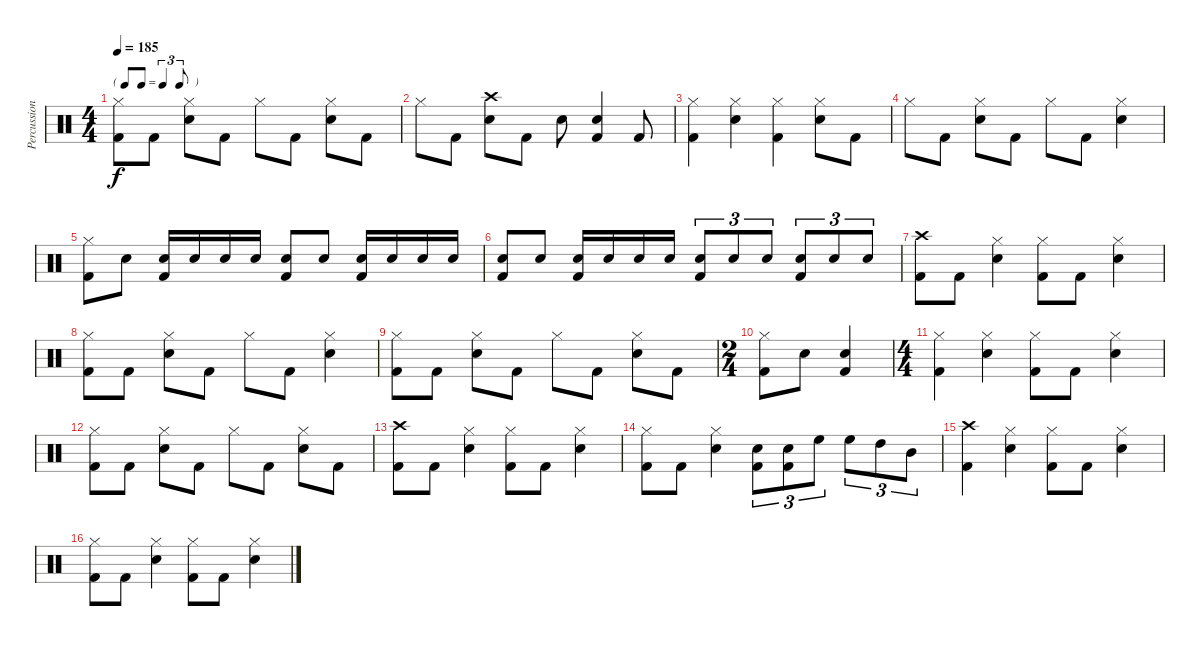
\track ("Percussion" "Percussion") {instrument percussion}
\staff {score}
\articulation defaults
\ts (4 4)
\tf triplet8th
\tempo 185
\clef neutral
\ks c
("Kick (hit) 2" "Hi-Hat (closed)").8{dy f} "Kick (hit) 2".8 ("Snare (hit) 2" "Hi-Hat (closed)").8 "Kick (hit) 2".8 "Hi-Hat (closed)".8 "Kick (hit) 2".8 ("Snare (hit) 2" "Hi-Hat (closed)").8 "Kick (hit) 2".8 |
"Hi-Hat (closed)".8 "Kick (hit) 2".8 ("Snare (hit) 2" "Crash high (hit)").8 "Kick (hit) 2".8 "Snare (hit) 2".8 ("Kick (hit) 2" "Snare (hit) 2").4 "Kick (hit) 2".8 |
("Kick (hit) 2" "Hi-Hat (closed)").4 ("Snare (hit) 2" "Hi-Hat (closed)").4 ("Kick (hit) 2" "Hi-Hat (closed)").4 ("Snare (hit) 2" "Hi-Hat (closed)").8 "Kick (hit) 2".8 |
"Hi-Hat (closed)".8 "Kick (hit) 2".8 ("Snare (hit) 2" "Hi-Hat (closed)").8 "Kick (hit) 2".8 "Hi-Hat (closed)".8 "Kick (hit) 2".8 ("Snare (hit) 2" "Hi-Hat (closed)").4 |
("Kick (hit) 2" "Hi-Hat (closed)").8 "Snare (hit) 2".8 ("Kick (hit) 2" "Snare (hit) 2").16 "Snare (hit) 2".16 "Snare (hit) 2".16 "Snare (hit) 2".16 ("Kick (hit) 2" "Snare (hit) 2").8 "Snare (hit) 2".8 ("Kick (hit) 2" "Snare (hit) 2").16 "Snare (hit) 2".16 "Snare (hit) 2".16 "Snare (hit) 2".16 |
("Kick (hit) 2" "Snare (hit) 2").8 "Snare (hit) 2".8 ("Kick (hit) 2" "Snare (hit) 2").16 "Snare (hit) 2".16 "Snare (hit) 2".16 "Snare (hit) 2".16 ("Kick (hit) 2" "Snare (hit) 2").8{tu (3 2)} "Snare (hit) 2".8{tu (3 2)} "Snare (hit) 2".8{tu (3 2)} ("Kick (hit) 2" "Snare (hit) 2").8{tu (3 2)} "Snare (hit) 2".8{tu (3 2)} "Snare (hit) 2".8{tu (3 2)} |
("Kick (hit) 2" "Crash high (hit)").8 "Kick (hit) 2".8 ("Snare (hit) 2" "Hi-Hat (closed)").4 ("Kick (hit) 2" "Hi-Hat (closed)").8 "Kick (hit) 2".8 ("Snare (hit) 2" "Hi-Hat (closed)").4 |
("Kick (hit) 2" "Hi-Hat (closed)").8 "Kick (hit) 2".8 ("Snare (hit) 2" "Hi-Hat (closed)").8 "Kick (hit) 2".8 "Hi-Hat (closed)".8 "Kick (hit) 2".8 ("Snare (hit) 2" "Hi-Hat (closed)").4 |
("Kick (hit) 2" "Hi-Hat (closed)").8 "Kick (hit) 2".8 ("Snare (hit) 2" "Hi-Hat (closed)").8 "Kick (hit) 2".8 "Hi-Hat (closed)".8 "Kick (hit) 2".8 ("Snare (hit) 2" "Hi-Hat (closed)").8 "Kick (hit) 2".8 |
\ts (2 4)
("Kick (hit) 2" "Hi-Hat (closed)").8 "Snare (hit) 2".8 ("Kick (hit) 2" "Snare (hit) 2").4 |
\ts (4 4)
("Kick (hit) 2" "Hi-Hat (closed)").4 ("Snare (hit) 2" "Hi-Hat (closed)").4 ("Kick (hit) 2" "Hi-Hat (closed)").8 "Kick (hit) 2".8 ("Snare (hit) 2" "Hi-Hat (closed)").4 |
("Kick (hit) 2" "Hi-Hat (closed)").8 "Kick (hit) 2".8 ("Snare (hit) 2" "Hi-Hat (closed)").8 "Kick (hit) 2".8 "Hi-Hat (closed)".8 "Kick (hit) 2".8 ("Snare (hit) 2" "Hi-Hat (closed)").8 "Kick (hit) 2".8 |
("Kick (hit) 2" "Crash high (hit)").8 "Kick (hit) 2".8 ("Snare (hit) 2" "Hi-Hat (closed)").4 ("Kick (hit) 2" "Hi-Hat (closed)").8 "Kick (hit) 2".8 ("Snare (hit) 2" "Hi-Hat (closed)").4 |
("Kick (hit) 2" "Hi-Hat (closed)").8 "Kick (hit) 2".8 ("Snare (hit) 2" "Hi-Hat (closed)").4 ("Kick (hit) 2" "Snare (hit) 2").8{tu (3 2)} ("Kick (hit) 2" "Snare (hit) 2").8{tu (3 2)} "High Floor Tom (hit)".8{tu (3 2)} "High Floor Tom (hit)".8{tu (3 2)} "High Tom (hit)".8{tu (3 2)} "Mid Tom (hit)".8{tu (3 2)} |
("Kick (hit) 2" "Crash high (hit)").4 ("Snare (hit) 2" "Hi-Hat (closed)").4 ("Kick (hit) 2" "Hi-Hat (closed)").8 "Kick (hit) 2".8 ("Snare (hit) 2" "Hi-Hat (closed)").4 |
("Kick (hit) 2" "Hi-Hat (closed)").8 "Kick (hit) 2".8 ("Snare (hit) 2" "Hi-Hat (closed)").4 ("Kick (hit) 2" "Hi-Hat (closed)").8 "Kick (hit) 2".8 ("Snare (hit) 2" "Hi-Hat (closed)").4
